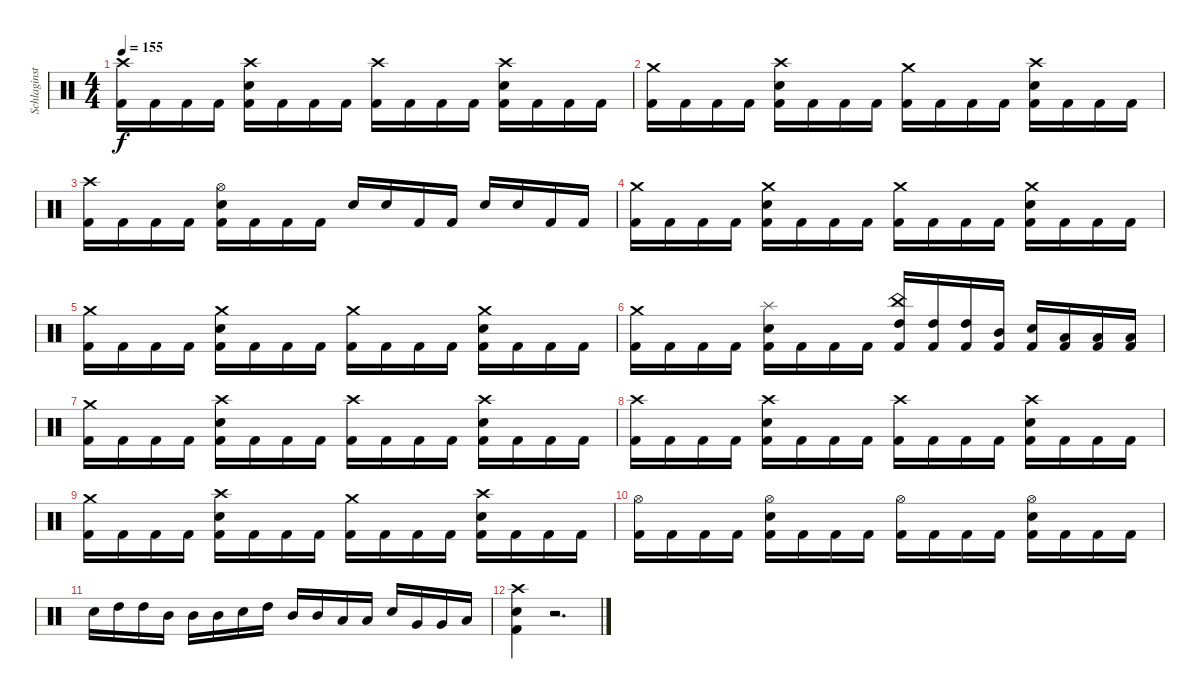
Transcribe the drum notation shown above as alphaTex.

\track ("Schlaginstrumente - Auswahl" "Schlaginst") {instrument percussion}
\staff {score}
\articulation defaults
\ts (4 4)
\tempo 155
\clef neutral
\ks c
("Crash high (hit)" "Kick (hit) 2").16{dy f} "Kick (hit) 2".16 "Kick (hit) 2".16 "Kick (hit) 2".16 ("Crash high (hit)" "Electric Snare (hit)" "Kick (hit) 2").16 "Kick (hit) 2".16 "Kick (hit) 2".16 "Kick (hit) 2".16 ("Crash high (hit)" "Kick (hit) 2").16 "Kick (hit) 2".16 "Kick (hit) 2".16 "Kick (hit) 2".16 ("Crash high (hit)" "Electric Snare (hit)" "Kick (hit) 2").16 "Kick (hit) 2".16 "Kick (hit) 2".16 "Kick (hit) 2".16 |
("Crash medium (hit)" "Kick (hit) 2").16 "Kick (hit) 2".16 "Kick (hit) 2".16 "Kick (hit) 2".16 ("Crash high (hit)" "Electric Snare (hit)" "Kick (hit) 2").16 "Kick (hit) 2".16 "Kick (hit) 2".16 "Kick (hit) 2".16 ("Crash medium (hit)" "Kick (hit) 2").16 "Kick (hit) 2".16 "Kick (hit) 2".16 "Kick (hit) 2".16 ("Crash high (hit)" "Electric Snare (hit)" "Kick (hit) 2").16 "Kick (hit) 2".16 "Kick (hit) 2".16 "Kick (hit) 2".16 |
("Crash high (hit)" "Kick (hit) 2").16 "Kick (hit) 2".16 "Kick (hit) 2".16 "Kick (hit) 2".16 ("Hi-Hat (open)" "Electric Snare (hit)" "Kick (hit) 2").16 "Kick (hit) 2".16 "Kick (hit) 2".16 "Kick (hit) 2".16 "Electric Snare (hit)".16 "Electric Snare (hit)".16 "Kick (hit) 2".16 "Kick (hit) 2".16 "Electric Snare (hit)".16 "Electric Snare (hit)".16 "Kick (hit) 2".16 "Kick (hit) 2".16 |
("Crash medium (hit)" "Kick (hit) 2").16 "Kick (hit) 2".16 "Kick (hit) 2".16 "Kick (hit) 2".16 ("Crash medium (hit)" "Electric Snare (hit)" "Kick (hit) 2").16 "Kick (hit) 2".16 "Kick (hit) 2".16 "Kick (hit) 2".16 ("Crash medium (hit)" "Kick (hit) 2").16 "Kick (hit) 2".16 "Kick (hit) 2".16 "Kick (hit) 2".16 ("Crash medium (hit)" "Electric Snare (hit)" "Kick (hit) 2").16 "Kick (hit) 2".16 "Kick (hit) 2".16 "Kick (hit) 2".16 |
("Crash medium (hit)" "Kick (hit) 2").16 "Kick (hit) 2".16 "Kick (hit) 2".16 "Kick (hit) 2".16 ("Crash medium (hit)" "Electric Snare (hit)" "Kick (hit) 2").16 "Kick (hit) 2".16 "Kick (hit) 2".16 "Kick (hit) 2".16 ("Crash medium (hit)" "Kick (hit) 2").16 "Kick (hit) 2".16 "Kick (hit) 2".16 "Kick (hit) 2".16 ("Crash medium (hit)" "Electric Snare (hit)" "Kick (hit) 2").16 "Kick (hit) 2".16 "Kick (hit) 2".16 "Kick (hit) 2".16 |
("Crash medium (hit)" "Kick (hit) 2").16 "Kick (hit) 2".16 "Kick (hit) 2".16 "Kick (hit) 2".16 ("Splash (hit)" "Electric Snare (hit)" "Kick (hit) 2").16 "Kick (hit) 2".16 "Kick (hit) 2".16 "Kick (hit) 2".16 ("China (hit)" "High Tom (hit)" "Kick (hit) 2").16 ("High Tom (hit)" "Kick (hit) 2").16 ("High Tom (hit)" "Kick (hit) 2").16 ("Mid Tom (hit)" "Kick (hit) 2").16 ("Electric Snare (hit)" "Kick (hit) 2").16 ("Low Tom (hit)" "Kick (hit) 2").16 ("Low Tom (hit)" "Kick (hit) 2").16 ("Low Tom (hit)" "Kick (hit) 2").16 |
("Crash medium (hit)" "Kick (hit) 2").16 "Kick (hit) 2".16 "Kick (hit) 2".16 "Kick (hit) 2".16 ("Crash high (hit)" "Electric Snare (hit)" "Kick (hit) 2").16 "Kick (hit) 2".16 "Kick (hit) 2".16 "Kick (hit) 2".16 ("Crash high (hit)" "Kick (hit) 2").16 "Kick (hit) 2".16 "Kick (hit) 2".16 "Kick (hit) 2".16 ("Crash high (hit)" "Electric Snare (hit)" "Kick (hit) 2").16 "Kick (hit) 2".16 "Kick (hit) 2".16 "Kick (hit) 2".16 |
("Crash high (hit)" "Kick (hit) 2").16 "Kick (hit) 2".16 "Kick (hit) 2".16 "Kick (hit) 2".16 ("Crash high (hit)" "Electric Snare (hit)" "Kick (hit) 2").16 "Kick (hit) 2".16 "Kick (hit) 2".16 "Kick (hit) 2".16 ("Crash high (hit)" "Kick (hit) 2").16 "Kick (hit) 2".16 "Kick (hit) 2".16 "Kick (hit) 2".16 ("Crash high (hit)" "Electric Snare (hit)" "Kick (hit) 2").16 "Kick (hit) 2".16 "Kick (hit) 2".16 "Kick (hit) 2".16 |
("Crash medium (hit)" "Kick (hit) 2").16 "Kick (hit) 2".16 "Kick (hit) 2".16 "Kick (hit) 2".16 ("Crash high (hit)" "Electric Snare (hit)" "Kick (hit) 2").16 "Kick (hit) 2".16 "Kick (hit) 2".16 "Kick (hit) 2".16 ("Crash medium (hit)" "Kick (hit) 2").16 "Kick (hit) 2".16 "Kick (hit) 2".16 "Kick (hit) 2".16 ("Crash high (hit)" "Electric Snare (hit)" "Kick (hit) 2").16 "Kick (hit) 2".16 "Kick (hit) 2".16 "Kick (hit) 2".16 |
("Hi-Hat (open)" "Kick (hit) 2").16 "Kick (hit) 2".16 "Kick (hit) 2".16 "Kick (hit) 2".16 ("Hi-Hat (open)" "Electric Snare (hit)" "Kick (hit) 2").16 "Kick (hit) 2".16 "Kick (hit) 2".16 "Kick (hit) 2".16 ("Hi-Hat (open)" "Kick (hit) 2").16 "Kick (hit) 2".16 "Kick (hit) 2".16 "Kick (hit) 2".16 ("Hi-Hat (open)" "Electric Snare (hit)" "Kick (hit) 2").16 "Kick (hit) 2".16 "Kick (hit) 2".16 "Kick (hit) 2".16 |
"Electric Snare (hit)".16 "High Tom (hit)".16 "High Tom (hit)".16 "Mid Tom (hit)".16 "Mid Tom (hit)".16 "Mid Tom (hit)".16 "Electric Snare (hit)".16 "High Tom (hit)".16 "Mid Tom (hit)".16 "Mid Tom (hit)".16 "Low Tom (hit)".16 "Low Tom (hit)".16 "Electric Snare (hit)".16 "Very Low Tom (hit)".16 "Very Low Tom (hit)".16 "Low Floor Tom (hit)".16 |
("Crash high (hit)" "Electric Snare (hit)" "Kick (hit) 2").4 r.2{d}
